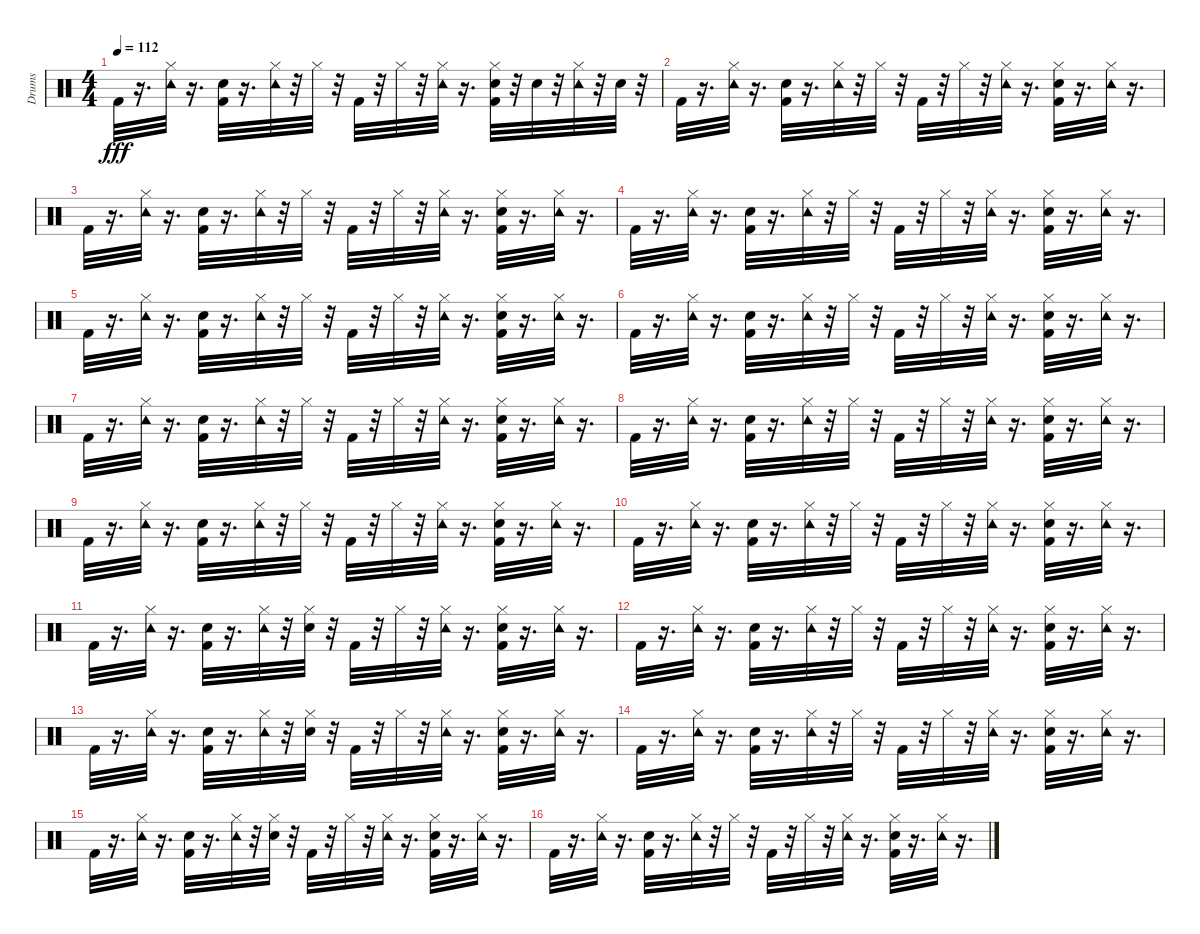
\track ("Drums" "Drums") {instrument percussion}
\staff {score}
\articulation defaults
\ts (4 4)
\tempo 112
\clef neutral
\ks c "Kick (hit) 2".32{dy fff}
r.16{d} ("Tambourine (hit)" "Hi-Hat (closed)").32 r.16{d} ("Snare (hit) 2" "Kick (hit) 2").32 r.16{d} ("Tambourine (hit)" "Hi-Hat (closed)").32 r.32 "Hi-Hat (closed)".32 r.32 "Kick (hit) 2".32 r.32 "Hi-Hat (closed)".32 r.32 ("Tambourine (hit)" "Hi-Hat (closed)").32 r.16{d} ("Snare (hit) 2" "Hi-Hat (closed)" "Kick (hit) 2").32 r.32 "Snare (hit) 2".32 r.32 ("Tambourine (hit)" "Hi-Hat (closed)").32 r.32 "Snare (hit) 2".32 r.32 |
"Kick (hit) 2".32{volume 16} r.16{d} ("Tambourine (hit)" "Hi-Hat (closed)").32 r.16{d} ("Snare (hit) 2" "Kick (hit) 2").32 r.16{d} ("Tambourine (hit)" "Hi-Hat (closed)").32 r.32 "Hi-Hat (closed)".32 r.32 "Kick (hit) 2".32 r.32 "Hi-Hat (closed)".32 r.32 ("Tambourine (hit)" "Hi-Hat (closed)").32 r.16{d} ("Snare (hit) 2" "Hi-Hat (closed)" "Kick (hit) 2").32 r.16{d} ("Tambourine (hit)" "Hi-Hat (closed)").32 r.16{d} |
"Kick (hit) 2".32 r.16{d} ("Tambourine (hit)" "Hi-Hat (closed)").32 r.16{d} ("Snare (hit) 2" "Kick (hit) 2").32 r.16{d} ("Tambourine (hit)" "Hi-Hat (closed)").32 r.32 "Hi-Hat (closed)".32 r.32 "Kick (hit) 2".32 r.32 "Hi-Hat (closed)".32 r.32 ("Tambourine (hit)" "Hi-Hat (closed)").32 r.16{d} ("Snare (hit) 2" "Hi-Hat (closed)" "Kick (hit) 2").32 r.16{d} ("Tambourine (hit)" "Hi-Hat (closed)").32 r.16{d} |
"Kick (hit) 2".32 r.16{d} ("Tambourine (hit)" "Hi-Hat (closed)").32 r.16{d} ("Snare (hit) 2" "Kick (hit) 2").32 r.16{d} ("Tambourine (hit)" "Hi-Hat (closed)").32 r.32 "Hi-Hat (closed)".32 r.32 "Kick (hit) 2".32 r.32 "Hi-Hat (closed)".32 r.32 ("Tambourine (hit)" "Hi-Hat (closed)").32 r.16{d} ("Snare (hit) 2" "Hi-Hat (closed)" "Kick (hit) 2").32 r.16{d} ("Tambourine (hit)" "Hi-Hat (closed)").32 r.16{d} |
"Kick (hit) 2".32 r.16{d} ("Tambourine (hit)" "Hi-Hat (closed)").32 r.16{d} ("Snare (hit) 2" "Kick (hit) 2").32 r.16{d} ("Tambourine (hit)" "Hi-Hat (closed)").32 r.32 "Hi-Hat (closed)".32 r.32 "Kick (hit) 2".32 r.32 "Hi-Hat (closed)".32 r.32 ("Tambourine (hit)" "Hi-Hat (closed)").32 r.16{d} ("Snare (hit) 2" "Hi-Hat (closed)" "Kick (hit) 2").32 r.16{d} ("Tambourine (hit)" "Hi-Hat (closed)").32 r.16{d} |
"Kick (hit) 2".32 r.16{d} ("Tambourine (hit)" "Hi-Hat (closed)").32 r.16{d} ("Snare (hit) 2" "Kick (hit) 2").32 r.16{d} ("Tambourine (hit)" "Hi-Hat (closed)").32 r.32 "Hi-Hat (closed)".32 r.32 "Kick (hit) 2".32 r.32 "Hi-Hat (closed)".32 r.32 ("Tambourine (hit)" "Hi-Hat (closed)").32 r.16{d} ("Snare (hit) 2" "Hi-Hat (closed)" "Kick (hit) 2").32 r.16{d} ("Tambourine (hit)" "Hi-Hat (closed)").32 r.16{d} |
"Kick (hit) 2".32 r.16{d} ("Tambourine (hit)" "Hi-Hat (closed)").32 r.16{d} ("Snare (hit) 2" "Kick (hit) 2").32 r.16{d} ("Tambourine (hit)" "Hi-Hat (closed)").32 r.32 "Hi-Hat (closed)".32 r.32 "Kick (hit) 2".32 r.32 "Hi-Hat (closed)".32 r.32 ("Tambourine (hit)" "Hi-Hat (closed)").32 r.16{d} ("Snare (hit) 2" "Hi-Hat (closed)" "Kick (hit) 2").32 r.16{d} ("Tambourine (hit)" "Hi-Hat (closed)").32 r.16{d} |
"Kick (hit) 2".32 r.16{d} ("Tambourine (hit)" "Hi-Hat (closed)").32 r.16{d} ("Snare (hit) 2" "Kick (hit) 2").32 r.16{d} ("Tambourine (hit)" "Hi-Hat (closed)").32 r.32 "Hi-Hat (closed)".32 r.32 "Kick (hit) 2".32 r.32 "Hi-Hat (closed)".32 r.32 ("Tambourine (hit)" "Hi-Hat (closed)").32 r.16{d} ("Snare (hit) 2" "Hi-Hat (closed)" "Kick (hit) 2").32 r.16{d} ("Tambourine (hit)" "Hi-Hat (closed)").32 r.16{d} |
"Kick (hit) 2".32 r.16{d} ("Tambourine (hit)" "Hi-Hat (closed)").32 r.16{d} ("Snare (hit) 2" "Kick (hit) 2").32 r.16{d} ("Tambourine (hit)" "Hi-Hat (closed)").32 r.32 "Hi-Hat (closed)".32 r.32 "Kick (hit) 2".32 r.32 "Hi-Hat (closed)".32 r.32 ("Tambourine (hit)" "Hi-Hat (closed)").32 r.16{d} ("Snare (hit) 2" "Hi-Hat (closed)" "Kick (hit) 2").32 r.16{d} ("Tambourine (hit)" "Hi-Hat (closed)").32 r.16{d} |
"Kick (hit) 2".32{volume 16} r.16{d} ("Tambourine (hit)" "Hi-Hat (closed)").32 r.16{d} ("Snare (hit) 2" "Kick (hit) 2").32 r.16{d} ("Tambourine (hit)" "Hi-Hat (closed)").32 r.32 "Hi-Hat (closed)".32 r.32 "Kick (hit) 2".32 r.32 "Hi-Hat (closed)".32 r.32 ("Tambourine (hit)" "Hi-Hat (closed)").32 r.16{d} ("Snare (hit) 2" "Hi-Hat (closed)" "Kick (hit) 2").32 r.16{d} ("Tambourine (hit)" "Hi-Hat (closed)").32 r.16{d} |
"Kick (hit) 2".32 r.16{d} ("Tambourine (hit)" "Hi-Hat (closed)").32 r.16{d} ("Snare (hit) 2" "Kick (hit) 2").32 r.16{d} ("Tambourine (hit)" "Hi-Hat (closed)").32 r.32 ("Snare (hit) 2" "Hi-Hat (closed)").32 r.32 "Kick (hit) 2".32 r.32 "Hi-Hat (closed)".32 r.32 ("Tambourine (hit)" "Hi-Hat (closed)").32 r.16{d} ("Snare (hit) 2" "Hi-Hat (closed)" "Kick (hit) 2").32 r.16{d} ("Tambourine (hit)" "Hi-Hat (closed)").32 r.16{d} |
"Kick (hit) 2".32 r.16{d} ("Tambourine (hit)" "Hi-Hat (closed)").32 r.16{d} ("Snare (hit) 2" "Kick (hit) 2").32 r.16{d} ("Tambourine (hit)" "Hi-Hat (closed)").32 r.32 "Hi-Hat (closed)".32 r.32 "Kick (hit) 2".32 r.32 "Hi-Hat (closed)".32 r.32 ("Tambourine (hit)" "Hi-Hat (closed)").32 r.16{d} ("Snare (hit) 2" "Hi-Hat (closed)" "Kick (hit) 2").32 r.16{d} ("Tambourine (hit)" "Hi-Hat (closed)").32 r.16{d} |
"Kick (hit) 2".32 r.16{d} ("Tambourine (hit)" "Hi-Hat (closed)").32 r.16{d} ("Snare (hit) 2" "Kick (hit) 2").32 r.16{d} ("Tambourine (hit)" "Hi-Hat (closed)").32 r.32 ("Snare (hit) 2" "Hi-Hat (closed)").32 r.32 "Kick (hit) 2".32 r.32 "Hi-Hat (closed)".32 r.32 ("Tambourine (hit)" "Hi-Hat (closed)").32 r.16{d} ("Snare (hit) 2" "Hi-Hat (closed)" "Kick (hit) 2").32 r.16{d} ("Tambourine (hit)" "Hi-Hat (closed)").32 r.16{d} |
"Kick (hit) 2".32 r.16{d} ("Tambourine (hit)" "Hi-Hat (closed)").32 r.16{d} ("Snare (hit) 2" "Kick (hit) 2").32 r.16{d} ("Tambourine (hit)" "Hi-Hat (closed)").32 r.32 "Hi-Hat (closed)".32 r.32 "Kick (hit) 2".32 r.32 "Hi-Hat (closed)".32 r.32 ("Tambourine (hit)" "Hi-Hat (closed)").32 r.16{d} ("Snare (hit) 2" "Hi-Hat (closed)" "Kick (hit) 2").32 r.16{d} ("Tambourine (hit)" "Hi-Hat (closed)").32 r.16{d} |
"Kick (hit) 2".32 r.16{d} ("Tambourine (hit)" "Hi-Hat (closed)").32 r.16{d} ("Snare (hit) 2" "Kick (hit) 2").32 r.16{d} ("Tambourine (hit)" "Hi-Hat (closed)").32 r.32 ("Snare (hit) 2" "Hi-Hat (closed)").32 r.32 "Kick (hit) 2".32 r.32 "Hi-Hat (closed)".32 r.32 ("Tambourine (hit)" "Hi-Hat (closed)").32 r.16{d} ("Snare (hit) 2" "Hi-Hat (closed)" "Kick (hit) 2").32 r.16{d} ("Tambourine (hit)" "Hi-Hat (closed)").32 r.16{d} |
"Kick (hit) 2".32 r.16{d} ("Tambourine (hit)" "Hi-Hat (closed)").32 r.16{d} ("Snare (hit) 2" "Kick (hit) 2").32 r.16{d} ("Tambourine (hit)" "Hi-Hat (closed)").32 r.32 "Hi-Hat (closed)".32 r.32 "Kick (hit) 2".32 r.32 "Hi-Hat (closed)".32 r.32 ("Tambourine (hit)" "Hi-Hat (closed)").32 r.16{d} ("Snare (hit) 2" "Hi-Hat (closed)" "Kick (hit) 2").32 r.16{d} ("Tambourine (hit)" "Hi-Hat (closed)").32 r.16{d}
